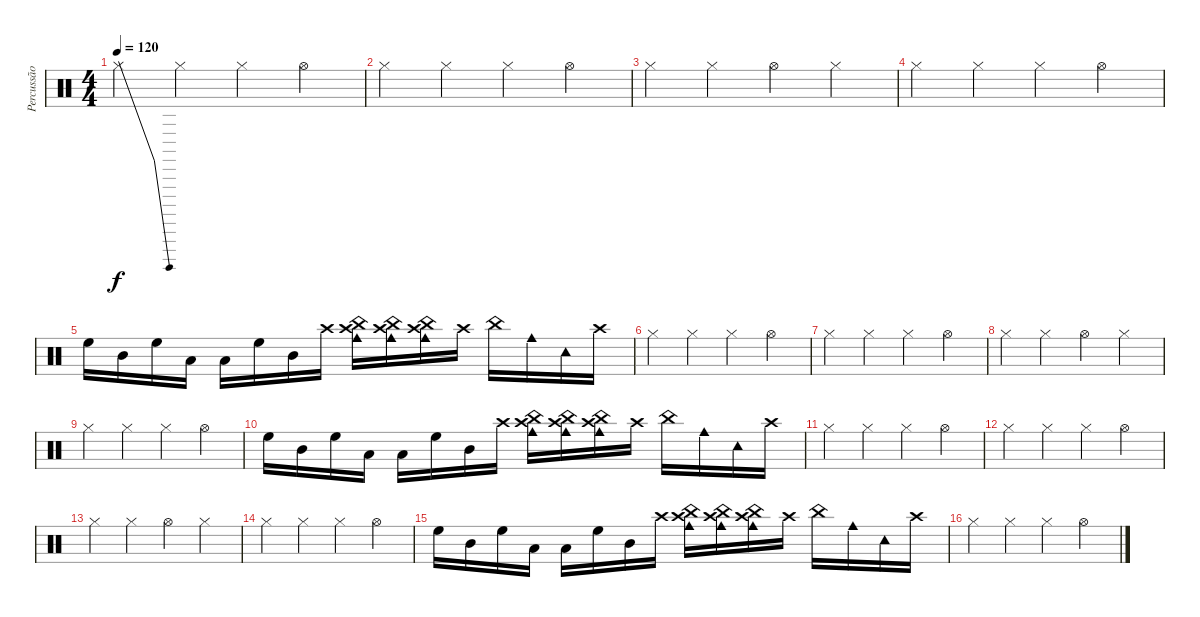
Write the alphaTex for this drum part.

\track ("Percussão" "Percussão") {instrument percussion}
\staff {score}
\articulation defaults
\ts (4 4)
\tempo 120
\clef neutral
\ks c "Hi-Hat (closed)"{be (bend 0 0 60 4)}.4{dy f} "Hi-Hat (closed)".4 "Hi-Hat (closed)".4 "Hi-Hat (open)".4
|
"Hi-Hat (closed)".4 "Hi-Hat (closed)".4 "Hi-Hat (closed)".4 "Hi-Hat (open)".4 |
"Hi-Hat (closed)".4 "Hi-Hat (closed)".4 "Hi-Hat (open)".4 "Hi-Hat (closed)".4 |
"Hi-Hat (closed)".4 "Hi-Hat (closed)".4 "Hi-Hat (closed)".4 "Hi-Hat (open)".4 |
"High Floor Tom (hit)".16 "Mid Tom (hit)".16 "High Floor Tom (hit)".16 "Low Tom (hit)".16 "Low Floor Tom (hit)".16 "High Floor Tom (hit)".16 "Mid Tom (hit)".16 "Crash high (hit)".16 ("China (hit)" "Crash high (hit)" "Cowbell medium (hit)").16 ("China (hit)" "Crash high (hit)" "Cowbell medium (hit)").16 ("China (hit)" "Crash high (hit)" "Cowbell medium (hit)").16 "Crash high (hit)".16 "China (hit)".16 "Cowbell medium (hit)".16 "Tambourine (hit)".16 "Crash high (hit)".16 |
"Hi-Hat (closed)".4 "Hi-Hat (closed)".4 "Hi-Hat (closed)".4 "Hi-Hat (open)".4 |
"Hi-Hat (closed)".4 "Hi-Hat (closed)".4 "Hi-Hat (closed)".4 "Hi-Hat (open)".4 |
"Hi-Hat (closed)".4 "Hi-Hat (closed)".4 "Hi-Hat (open)".4 "Hi-Hat (closed)".4 |
"Hi-Hat (closed)".4 "Hi-Hat (closed)".4 "Hi-Hat (closed)".4 "Hi-Hat (open)".4 |
"High Floor Tom (hit)".16 "Mid Tom (hit)".16 "High Floor Tom (hit)".16 "Low Tom (hit)".16 "Low Floor Tom (hit)".16 "High Floor Tom (hit)".16 "Mid Tom (hit)".16 "Crash high (hit)".16 ("China (hit)" "Crash high (hit)" "Cowbell medium (hit)").16 ("China (hit)" "Crash high (hit)" "Cowbell medium (hit)").16 ("China (hit)" "Crash high (hit)" "Cowbell medium (hit)").16 "Crash high (hit)".16 "China (hit)".16 "Cowbell medium (hit)".16 "Tambourine (hit)".16 "Crash high (hit)".16 |
"Hi-Hat (closed)".4 "Hi-Hat (closed)".4 "Hi-Hat (closed)".4 "Hi-Hat (open)".4 |
"Hi-Hat (closed)".4 "Hi-Hat (closed)".4 "Hi-Hat (closed)".4 "Hi-Hat (open)".4 |
"Hi-Hat (closed)".4 "Hi-Hat (closed)".4 "Hi-Hat (open)".4 "Hi-Hat (closed)".4 |
"Hi-Hat (closed)".4 "Hi-Hat (closed)".4 "Hi-Hat (closed)".4 "Hi-Hat (open)".4 |
"High Floor Tom (hit)".16 "Mid Tom (hit)".16 "High Floor Tom (hit)".16 "Low Tom (hit)".16 "Low Floor Tom (hit)".16 "High Floor Tom (hit)".16 "Mid Tom (hit)".16 "Crash high (hit)".16 ("China (hit)" "Crash high (hit)" "Cowbell medium (hit)").16 ("China (hit)" "Crash high (hit)" "Cowbell medium (hit)").16 ("China (hit)" "Crash high (hit)" "Cowbell medium (hit)").16 "Crash high (hit)".16 "China (hit)".16 "Cowbell medium (hit)".16 "Tambourine (hit)".16 "Crash high (hit)".16 |
"Hi-Hat (closed)".4 "Hi-Hat (closed)".4 "Hi-Hat (closed)".4 "Hi-Hat (open)".4
